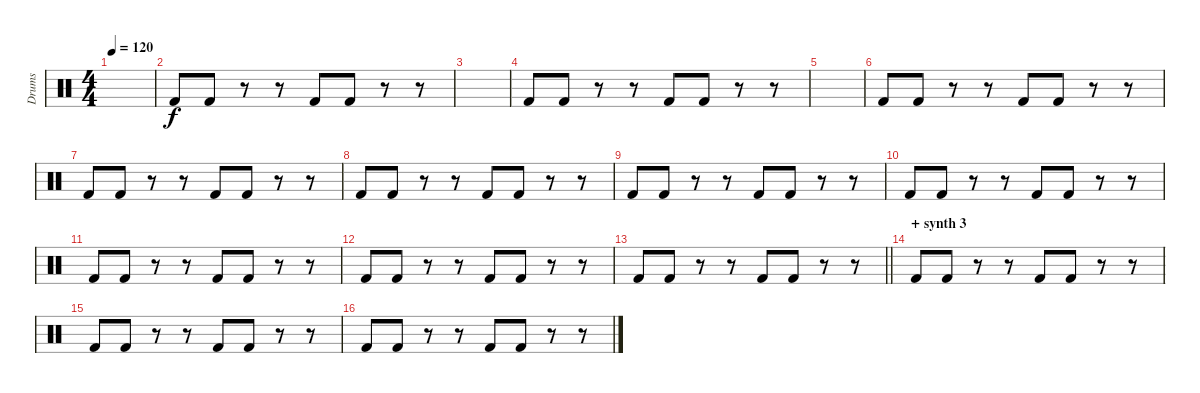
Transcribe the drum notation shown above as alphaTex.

\track ("Drums" "Drums") {instrument percussion}
\staff {score}
\articulation defaults
\ts (4 4)
\tempo 120
\clef neutral
\ks c
|
"Kick (hit) 2".8 "Kick (hit) 2".8 r.8 r.8 "Kick (hit) 2".8 "Kick (hit) 2".8 r.8 r.8 |
|
"Kick (hit) 2".8 "Kick (hit) 2".8 r.8 r.8 "Kick (hit) 2".8 "Kick (hit) 2".8 r.8 r.8 |
|
"Kick (hit) 2".8 "Kick (hit) 2".8 r.8 r.8 "Kick (hit) 2".8 "Kick (hit) 2".8 r.8 r.8 |
"Kick (hit) 2".8 "Kick (hit) 2".8 r.8 r.8 "Kick (hit) 2".8 "Kick (hit) 2".8 r.8 r.8 |
"Kick (hit) 2".8 "Kick (hit) 2".8 r.8 r.8 "Kick (hit) 2".8 "Kick (hit) 2".8 r.8 r.8 |
"Kick (hit) 2".8 "Kick (hit) 2".8 r.8 r.8 "Kick (hit) 2".8 "Kick (hit) 2".8 r.8 r.8 |
"Kick (hit) 2".8 "Kick (hit) 2".8 r.8 r.8 "Kick (hit) 2".8 "Kick (hit) 2".8 r.8 r.8 |
"Kick (hit) 2".8 "Kick (hit) 2".8 r.8 r.8 "Kick (hit) 2".8 "Kick (hit) 2".8 r.8 r.8 |
"Kick (hit) 2".8 "Kick (hit) 2".8 r.8 r.8 "Kick (hit) 2".8 "Kick (hit) 2".8 r.8 r.8 |
\barLineRight lightlight "Kick (hit) 2".8 "Kick (hit) 2".8
r.8 r.8 "Kick (hit) 2".8 "Kick (hit) 2".8 r.8 r.8 |
\section ("" "+ synth 3")
"Kick (hit) 2".8 "Kick (hit) 2".8 r.8 r.8 "Kick (hit) 2".8 "Kick (hit) 2".8 r.8 r.8 |
"Kick (hit) 2".8 "Kick (hit) 2".8 r.8 r.8 "Kick (hit) 2".8 "Kick (hit) 2".8 r.8 r.8 |
"Kick (hit) 2".8 "Kick (hit) 2".8 r.8 r.8 "Kick (hit) 2".8 "Kick (hit) 2".8 r.8 r.8
